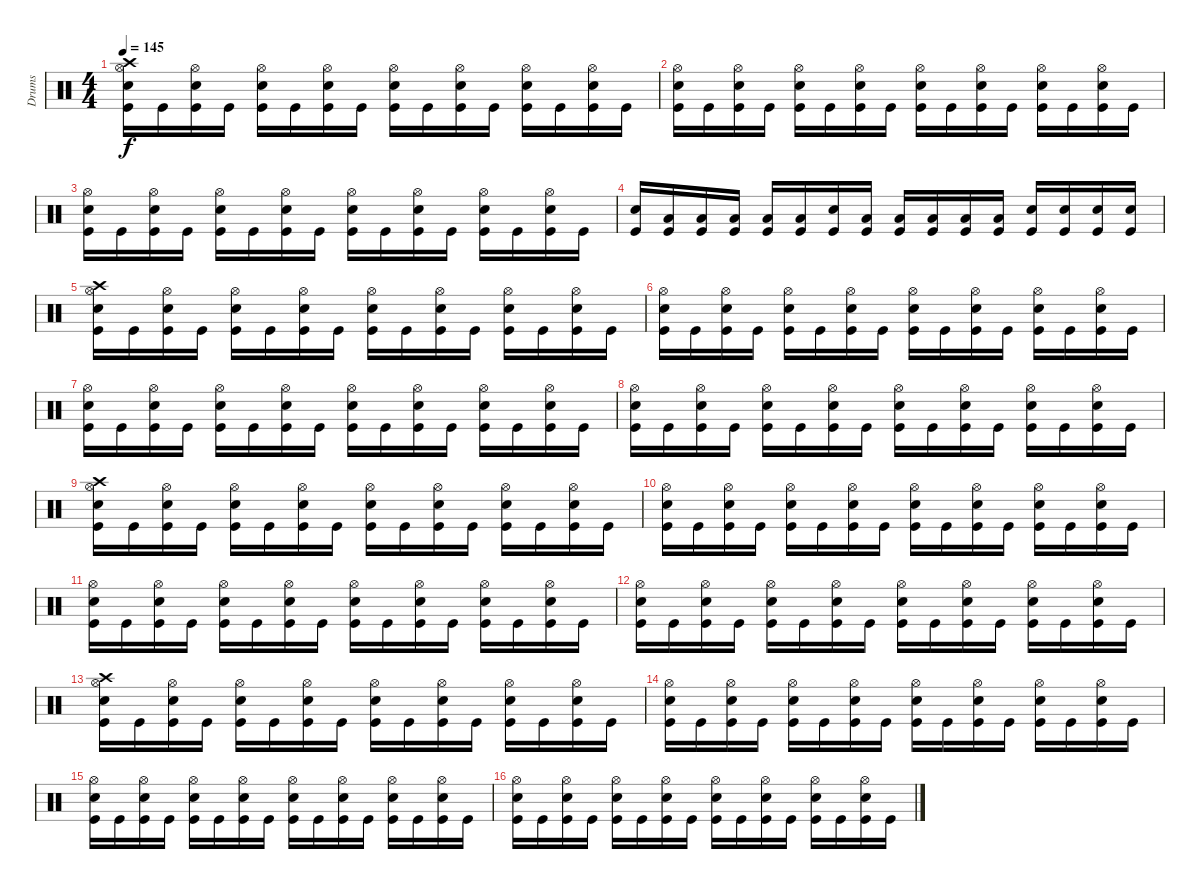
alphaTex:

\track ("Drums" "Drums") {instrument percussion}
\staff {score}
\articulation defaults
\ts (4 4)
\tempo 145
\clef neutral
\ks c
("Crash high (hit)" "Hi-Hat (open)" "Electric Snare (hit)" "Kick (hit)").16{dy f} "Kick (hit)".16 ("Hi-Hat (open)" "Electric Snare (hit)" "Kick (hit)").16 "Kick (hit)".16 ("Hi-Hat (open)" "Electric Snare (hit)" "Kick (hit)").16 "Kick (hit)".16 ("Hi-Hat (open)" "Electric Snare (hit)" "Kick (hit)").16 "Kick (hit)".16 ("Hi-Hat (open)" "Electric Snare (hit)" "Kick (hit)").16 "Kick (hit)".16 ("Hi-Hat (open)" "Electric Snare (hit)" "Kick (hit)").16 "Kick (hit)".16 ("Hi-Hat (open)" "Electric Snare (hit)" "Kick (hit)").16 "Kick (hit)".16 ("Hi-Hat (open)" "Electric Snare (hit)" "Kick (hit)").16 "Kick (hit)".16 |
("Hi-Hat (open)" "Electric Snare (hit)" "Kick (hit)").16 "Kick (hit)".16 ("Hi-Hat (open)" "Electric Snare (hit)" "Kick (hit)").16 "Kick (hit)".16 ("Hi-Hat (open)" "Electric Snare (hit)" "Kick (hit)").16 "Kick (hit)".16 ("Hi-Hat (open)" "Electric Snare (hit)" "Kick (hit)").16 "Kick (hit)".16 ("Hi-Hat (open)" "Electric Snare (hit)" "Kick (hit)").16 "Kick (hit)".16 ("Hi-Hat (open)" "Electric Snare (hit)" "Kick (hit)").16 "Kick (hit)".16 ("Hi-Hat (open)" "Electric Snare (hit)" "Kick (hit)").16 "Kick (hit)".16 ("Hi-Hat (open)" "Electric Snare (hit)" "Kick (hit)").16 "Kick (hit)".16 |
("Hi-Hat (open)" "Electric Snare (hit)" "Kick (hit)").16 "Kick (hit)".16 ("Hi-Hat (open)" "Electric Snare (hit)" "Kick (hit)").16 "Kick (hit)".16 ("Hi-Hat (open)" "Electric Snare (hit)" "Kick (hit)").16 "Kick (hit)".16 ("Hi-Hat (open)" "Electric Snare (hit)" "Kick (hit)").16 "Kick (hit)".16 ("Hi-Hat (open)" "Electric Snare (hit)" "Kick (hit)").16 "Kick (hit)".16 ("Hi-Hat (open)" "Electric Snare (hit)" "Kick (hit)").16 "Kick (hit)".16 ("Hi-Hat (open)" "Electric Snare (hit)" "Kick (hit)").16 "Kick (hit)".16 ("Hi-Hat (open)" "Electric Snare (hit)" "Kick (hit)").16 "Kick (hit)".16 |
("Electric Snare (hit)" "Kick (hit)").16 ("Low Tom (hit)" "Kick (hit)").16 ("Low Tom (hit)" "Kick (hit)").16 ("Low Tom (hit)" "Kick (hit)").16 ("Low Tom (hit)" "Kick (hit)").16 ("Low Tom (hit)" "Kick (hit)").16 ("Electric Snare (hit)" "Kick (hit)").16 ("Low Tom (hit)" "Kick (hit)").16 ("Low Tom (hit)" "Kick (hit)").16 ("Low Tom (hit)" "Kick (hit)").16 ("Low Tom (hit)" "Kick (hit)").16 ("Low Tom (hit)" "Kick (hit)").16 ("Electric Snare (hit)" "Kick (hit)").16 ("Electric Snare (hit)" "Kick (hit)").16 ("Electric Snare (hit)" "Kick (hit)").16 ("Electric Snare (hit)" "Kick (hit)").16 |
("Crash high (hit)" "Hi-Hat (open)" "Electric Snare (hit)" "Kick (hit)").16 "Kick (hit)".16 ("Hi-Hat (open)" "Electric Snare (hit)" "Kick (hit)").16 "Kick (hit)".16 ("Hi-Hat (open)" "Electric Snare (hit)" "Kick (hit)").16 "Kick (hit)".16 ("Hi-Hat (open)" "Electric Snare (hit)" "Kick (hit)").16 "Kick (hit)".16 ("Hi-Hat (open)" "Electric Snare (hit)" "Kick (hit)").16 "Kick (hit)".16 ("Hi-Hat (open)" "Electric Snare (hit)" "Kick (hit)").16 "Kick (hit)".16 ("Hi-Hat (open)" "Electric Snare (hit)" "Kick (hit)").16 "Kick (hit)".16 ("Hi-Hat (open)" "Electric Snare (hit)" "Kick (hit)").16 "Kick (hit)".16 |
("Hi-Hat (open)" "Electric Snare (hit)" "Kick (hit)").16 "Kick (hit)".16 ("Hi-Hat (open)" "Electric Snare (hit)" "Kick (hit)").16 "Kick (hit)".16 ("Hi-Hat (open)" "Electric Snare (hit)" "Kick (hit)").16 "Kick (hit)".16 ("Hi-Hat (open)" "Electric Snare (hit)" "Kick (hit)").16 "Kick (hit)".16 ("Hi-Hat (open)" "Electric Snare (hit)" "Kick (hit)").16 "Kick (hit)".16 ("Hi-Hat (open)" "Electric Snare (hit)" "Kick (hit)").16 "Kick (hit)".16 ("Hi-Hat (open)" "Electric Snare (hit)" "Kick (hit)").16 "Kick (hit)".16 ("Hi-Hat (open)" "Electric Snare (hit)" "Kick (hit)").16 "Kick (hit)".16 |
("Hi-Hat (open)" "Electric Snare (hit)" "Kick (hit)").16 "Kick (hit)".16 ("Hi-Hat (open)" "Electric Snare (hit)" "Kick (hit)").16 "Kick (hit)".16 ("Hi-Hat (open)" "Electric Snare (hit)" "Kick (hit)").16 "Kick (hit)".16 ("Hi-Hat (open)" "Electric Snare (hit)" "Kick (hit)").16 "Kick (hit)".16 ("Hi-Hat (open)" "Electric Snare (hit)" "Kick (hit)").16 "Kick (hit)".16 ("Hi-Hat (open)" "Electric Snare (hit)" "Kick (hit)").16 "Kick (hit)".16 ("Hi-Hat (open)" "Electric Snare (hit)" "Kick (hit)").16 "Kick (hit)".16 ("Hi-Hat (open)" "Electric Snare (hit)" "Kick (hit)").16 "Kick (hit)".16 |
("Hi-Hat (open)" "Electric Snare (hit)" "Kick (hit)").16 "Kick (hit)".16 ("Hi-Hat (open)" "Electric Snare (hit)" "Kick (hit)").16 "Kick (hit)".16 ("Hi-Hat (open)" "Electric Snare (hit)" "Kick (hit)").16 "Kick (hit)".16 ("Hi-Hat (open)" "Electric Snare (hit)" "Kick (hit)").16 "Kick (hit)".16 ("Hi-Hat (open)" "Electric Snare (hit)" "Kick (hit)").16 "Kick (hit)".16 ("Hi-Hat (open)" "Electric Snare (hit)" "Kick (hit)").16 "Kick (hit)".16 ("Hi-Hat (open)" "Electric Snare (hit)" "Kick (hit)").16 "Kick (hit)".16 ("Hi-Hat (open)" "Electric Snare (hit)" "Kick (hit)").16 "Kick (hit)".16 |
("Crash high (hit)" "Hi-Hat (open)" "Electric Snare (hit)" "Kick (hit)").16 "Kick (hit)".16 ("Hi-Hat (open)" "Electric Snare (hit)" "Kick (hit)").16 "Kick (hit)".16 ("Hi-Hat (open)" "Electric Snare (hit)" "Kick (hit)").16 "Kick (hit)".16 ("Hi-Hat (open)" "Electric Snare (hit)" "Kick (hit)").16 "Kick (hit)".16 ("Hi-Hat (open)" "Electric Snare (hit)" "Kick (hit)").16 "Kick (hit)".16 ("Hi-Hat (open)" "Electric Snare (hit)" "Kick (hit)").16 "Kick (hit)".16 ("Hi-Hat (open)" "Electric Snare (hit)" "Kick (hit)").16 "Kick (hit)".16 ("Hi-Hat (open)" "Electric Snare (hit)" "Kick (hit)").16 "Kick (hit)".16 |
("Hi-Hat (open)" "Electric Snare (hit)" "Kick (hit)").16 "Kick (hit)".16 ("Hi-Hat (open)" "Electric Snare (hit)" "Kick (hit)").16 "Kick (hit)".16 ("Hi-Hat (open)" "Electric Snare (hit)" "Kick (hit)").16 "Kick (hit)".16 ("Hi-Hat (open)" "Electric Snare (hit)" "Kick (hit)").16 "Kick (hit)".16 ("Hi-Hat (open)" "Electric Snare (hit)" "Kick (hit)").16 "Kick (hit)".16 ("Hi-Hat (open)" "Electric Snare (hit)" "Kick (hit)").16 "Kick (hit)".16 ("Hi-Hat (open)" "Electric Snare (hit)" "Kick (hit)").16 "Kick (hit)".16 ("Hi-Hat (open)" "Electric Snare (hit)" "Kick (hit)").16 "Kick (hit)".16 |
("Hi-Hat (open)" "Electric Snare (hit)" "Kick (hit)").16 "Kick (hit)".16 ("Hi-Hat (open)" "Electric Snare (hit)" "Kick (hit)").16 "Kick (hit)".16 ("Hi-Hat (open)" "Electric Snare (hit)" "Kick (hit)").16 "Kick (hit)".16 ("Hi-Hat (open)" "Electric Snare (hit)" "Kick (hit)").16 "Kick (hit)".16 ("Hi-Hat (open)" "Electric Snare (hit)" "Kick (hit)").16 "Kick (hit)".16 ("Hi-Hat (open)" "Electric Snare (hit)" "Kick (hit)").16 "Kick (hit)".16 ("Hi-Hat (open)" "Electric Snare (hit)" "Kick (hit)").16 "Kick (hit)".16 ("Hi-Hat (open)" "Electric Snare (hit)" "Kick (hit)").16 "Kick (hit)".16 |
("Hi-Hat (open)" "Electric Snare (hit)" "Kick (hit)").16 "Kick (hit)".16 ("Hi-Hat (open)" "Electric Snare (hit)" "Kick (hit)").16 "Kick (hit)".16 ("Hi-Hat (open)" "Electric Snare (hit)" "Kick (hit)").16 "Kick (hit)".16 ("Hi-Hat (open)" "Electric Snare (hit)" "Kick (hit)").16 "Kick (hit)".16 ("Hi-Hat (open)" "Electric Snare (hit)" "Kick (hit)").16 "Kick (hit)".16 ("Hi-Hat (open)" "Electric Snare (hit)" "Kick (hit)").16 "Kick (hit)".16 ("Hi-Hat (open)" "Electric Snare (hit)" "Kick (hit)").16 "Kick (hit)".16 ("Hi-Hat (open)" "Electric Snare (hit)" "Kick (hit)").16 "Kick (hit)".16 |
("Crash high (hit)" "Hi-Hat (open)" "Electric Snare (hit)" "Kick (hit)").16 "Kick (hit)".16 ("Hi-Hat (open)" "Electric Snare (hit)" "Kick (hit)").16 "Kick (hit)".16 ("Hi-Hat (open)" "Electric Snare (hit)" "Kick (hit)").16 "Kick (hit)".16 ("Hi-Hat (open)" "Electric Snare (hit)" "Kick (hit)").16 "Kick (hit)".16 ("Hi-Hat (open)" "Electric Snare (hit)" "Kick (hit)").16 "Kick (hit)".16 ("Hi-Hat (open)" "Electric Snare (hit)" "Kick (hit)").16 "Kick (hit)".16 ("Hi-Hat (open)" "Electric Snare (hit)" "Kick (hit)").16 "Kick (hit)".16 ("Hi-Hat (open)" "Electric Snare (hit)" "Kick (hit)").16 "Kick (hit)".16 |
("Hi-Hat (open)" "Electric Snare (hit)" "Kick (hit)").16 "Kick (hit)".16 ("Hi-Hat (open)" "Electric Snare (hit)" "Kick (hit)").16 "Kick (hit)".16 ("Hi-Hat (open)" "Electric Snare (hit)" "Kick (hit)").16 "Kick (hit)".16 ("Hi-Hat (open)" "Electric Snare (hit)" "Kick (hit)").16 "Kick (hit)".16 ("Hi-Hat (open)" "Electric Snare (hit)" "Kick (hit)").16 "Kick (hit)".16 ("Hi-Hat (open)" "Electric Snare (hit)" "Kick (hit)").16 "Kick (hit)".16 ("Hi-Hat (open)" "Electric Snare (hit)" "Kick (hit)").16 "Kick (hit)".16 ("Hi-Hat (open)" "Electric Snare (hit)" "Kick (hit)").16 "Kick (hit)".16 |
("Hi-Hat (open)" "Electric Snare (hit)" "Kick (hit)").16 "Kick (hit)".16 ("Hi-Hat (open)" "Electric Snare (hit)" "Kick (hit)").16 "Kick (hit)".16 ("Hi-Hat (open)" "Electric Snare (hit)" "Kick (hit)").16 "Kick (hit)".16 ("Hi-Hat (open)" "Electric Snare (hit)" "Kick (hit)").16 "Kick (hit)".16 ("Hi-Hat (open)" "Electric Snare (hit)" "Kick (hit)").16 "Kick (hit)".16 ("Hi-Hat (open)" "Electric Snare (hit)" "Kick (hit)").16 "Kick (hit)".16 ("Hi-Hat (open)" "Electric Snare (hit)" "Kick (hit)").16 "Kick (hit)".16 ("Hi-Hat (open)" "Electric Snare (hit)" "Kick (hit)").16 "Kick (hit)".16 |
("Hi-Hat (open)" "Electric Snare (hit)" "Kick (hit)").16 "Kick (hit)".16 ("Hi-Hat (open)" "Electric Snare (hit)" "Kick (hit)").16 "Kick (hit)".16 ("Hi-Hat (open)" "Electric Snare (hit)" "Kick (hit)").16 "Kick (hit)".16 ("Hi-Hat (open)" "Electric Snare (hit)" "Kick (hit)").16 "Kick (hit)".16 ("Hi-Hat (open)" "Electric Snare (hit)" "Kick (hit)").16 "Kick (hit)".16 ("Hi-Hat (open)" "Electric Snare (hit)" "Kick (hit)").16 "Kick (hit)".16 ("Hi-Hat (open)" "Electric Snare (hit)" "Kick (hit)").16 "Kick (hit)".16 ("Hi-Hat (open)" "Electric Snare (hit)" "Kick (hit)").16 "Kick (hit)".16
